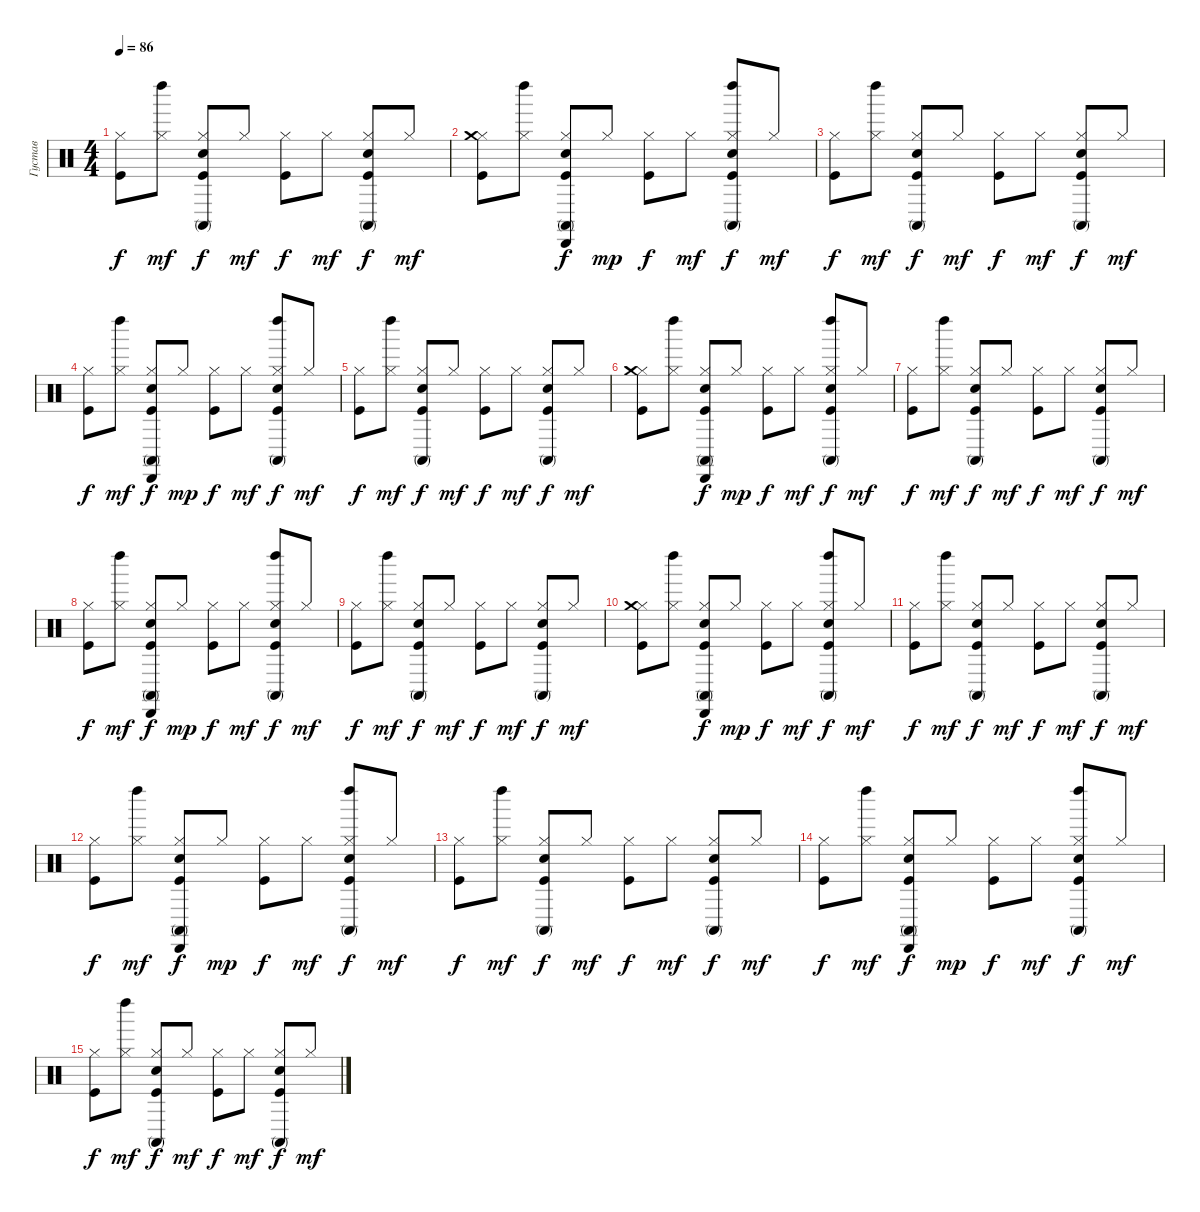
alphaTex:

\track ("Густав" "Густав") {instrument percussion}
\staff {score}
\articulation defaults
\ts (4 4)
\tempo 86
\clef neutral
\ks c
("Hi-Hat (closed)" "Kick (hit)").8{dy f} ("Hi-Hat (closed)" "Left Maraca (hit)").8{dy mf} ("Snare (hit) 2" "Conga high (mute)" "Hi-Hat (closed)" "Kick (hit)").8{dy f} "Hi-Hat (closed)".8{dy mf} ("Hi-Hat (closed)" "Kick (hit)").8{dy f} "Hi-Hat (closed)".8{dy mf} ("Snare (hit) 2" "Conga high (mute)" "Hi-Hat (closed)" "Kick (hit)").8{dy f} "Hi-Hat (closed)".8{dy mf} |
("Hi-Hat (closed)" "Crash medium (hit)" "Kick (hit)").8 ("Hi-Hat (closed)" "Left Maraca (hit)").8 ("Cabasa (hit)" "Snare (hit) 2" "Conga high (mute)" "Hi-Hat (closed)" "Kick (hit)").8{dy f} "Hi-Hat (closed)".8{dy mp} ("Hi-Hat (closed)" "Kick (hit)").8{dy f} "Hi-Hat (closed)".8{dy mf} ("Left Maraca (hit)" "Snare (hit) 2" "Conga high (mute)" "Hi-Hat (closed)" "Kick (hit)").8{dy f} "Hi-Hat (closed)".8{dy mf} |
("Hi-Hat (closed)" "Kick (hit)").8{dy f} ("Hi-Hat (closed)" "Left Maraca (hit)").8{dy mf} ("Snare (hit) 2" "Conga high (mute)" "Hi-Hat (closed)" "Kick (hit)").8{dy f} "Hi-Hat (closed)".8{dy mf} ("Hi-Hat (closed)" "Kick (hit)").8{dy f} "Hi-Hat (closed)".8{dy mf} ("Snare (hit) 2" "Conga high (mute)" "Hi-Hat (closed)" "Kick (hit)").8{dy f} "Hi-Hat (closed)".8{dy mf} |
("Hi-Hat (closed)" "Kick (hit)").8{dy f} ("Hi-Hat (closed)" "Left Maraca (hit)").8{dy mf} ("Cabasa (hit)" "Snare (hit) 2" "Conga high (mute)" "Hi-Hat (closed)" "Kick (hit)").8{dy f} "Hi-Hat (closed)".8{dy mp} ("Hi-Hat (closed)" "Kick (hit)").8{dy f} "Hi-Hat (closed)".8{dy mf} ("Left Maraca (hit)" "Snare (hit) 2" "Conga high (mute)" "Hi-Hat (closed)" "Kick (hit)").8{dy f} "Hi-Hat (closed)".8{dy mf} |
("Hi-Hat (closed)" "Kick (hit)").8{dy f} ("Hi-Hat (closed)" "Left Maraca (hit)").8{dy mf} ("Snare (hit) 2" "Conga high (mute)" "Hi-Hat (closed)" "Kick (hit)").8{dy f} "Hi-Hat (closed)".8{dy mf} ("Hi-Hat (closed)" "Kick (hit)").8{dy f} "Hi-Hat (closed)".8{dy mf} ("Snare (hit) 2" "Conga high (mute)" "Hi-Hat (closed)" "Kick (hit)").8{dy f} "Hi-Hat (closed)".8{dy mf} |
("Hi-Hat (closed)" "Crash medium (hit)" "Kick (hit)").8 ("Hi-Hat (closed)" "Left Maraca (hit)").8 ("Cabasa (hit)" "Snare (hit) 2" "Conga high (mute)" "Hi-Hat (closed)" "Kick (hit)").8{dy f} "Hi-Hat (closed)".8{dy mp} ("Hi-Hat (closed)" "Kick (hit)").8{dy f} "Hi-Hat (closed)".8{dy mf} ("Left Maraca (hit)" "Snare (hit) 2" "Conga high (mute)" "Hi-Hat (closed)" "Kick (hit)").8{dy f} "Hi-Hat (closed)".8{dy mf} |
("Hi-Hat (closed)" "Kick (hit)").8{dy f} ("Hi-Hat (closed)" "Left Maraca (hit)").8{dy mf} ("Snare (hit) 2" "Conga high (mute)" "Hi-Hat (closed)" "Kick (hit)").8{dy f} "Hi-Hat (closed)".8{dy mf} ("Hi-Hat (closed)" "Kick (hit)").8{dy f} "Hi-Hat (closed)".8{dy mf} ("Snare (hit) 2" "Conga high (mute)" "Hi-Hat (closed)" "Kick (hit)").8{dy f} "Hi-Hat (closed)".8{dy mf} |
("Hi-Hat (closed)" "Kick (hit)").8{dy f} ("Hi-Hat (closed)" "Left Maraca (hit)").8{dy mf} ("Cabasa (hit)" "Snare (hit) 2" "Conga high (mute)" "Hi-Hat (closed)" "Kick (hit)").8{dy f} "Hi-Hat (closed)".8{dy mp} ("Hi-Hat (closed)" "Kick (hit)").8{dy f} "Hi-Hat (closed)".8{dy mf} ("Left Maraca (hit)" "Snare (hit) 2" "Conga high (mute)" "Hi-Hat (closed)" "Kick (hit)").8{dy f} "Hi-Hat (closed)".8{dy mf} |
("Hi-Hat (closed)" "Kick (hit)").8{dy f} ("Hi-Hat (closed)" "Left Maraca (hit)").8{dy mf} ("Snare (hit) 2" "Conga high (mute)" "Hi-Hat (closed)" "Kick (hit)").8{dy f} "Hi-Hat (closed)".8{dy mf} ("Hi-Hat (closed)" "Kick (hit)").8{dy f} "Hi-Hat (closed)".8{dy mf} ("Snare (hit) 2" "Conga high (mute)" "Hi-Hat (closed)" "Kick (hit)").8{dy f} "Hi-Hat (closed)".8{dy mf} |
("Hi-Hat (closed)" "Crash medium (hit)" "Kick (hit)").8 ("Hi-Hat (closed)" "Left Maraca (hit)").8 ("Cabasa (hit)" "Snare (hit) 2" "Conga high (mute)" "Hi-Hat (closed)" "Kick (hit)").8{dy f} "Hi-Hat (closed)".8{dy mp} ("Hi-Hat (closed)" "Kick (hit)").8{dy f} "Hi-Hat (closed)".8{dy mf} ("Left Maraca (hit)" "Snare (hit) 2" "Conga high (mute)" "Hi-Hat (closed)" "Kick (hit)").8{dy f} "Hi-Hat (closed)".8{dy mf} |
("Hi-Hat (closed)" "Kick (hit)").8{dy f} ("Hi-Hat (closed)" "Left Maraca (hit)").8{dy mf} ("Snare (hit) 2" "Conga high (mute)" "Hi-Hat (closed)" "Kick (hit)").8{dy f} "Hi-Hat (closed)".8{dy mf} ("Hi-Hat (closed)" "Kick (hit)").8{dy f} "Hi-Hat (closed)".8{dy mf} ("Snare (hit) 2" "Conga high (mute)" "Hi-Hat (closed)" "Kick (hit)").8{dy f} "Hi-Hat (closed)".8{dy mf} |
("Hi-Hat (closed)" "Kick (hit)").8{dy f} ("Hi-Hat (closed)" "Left Maraca (hit)").8{dy mf} ("Cabasa (hit)" "Snare (hit) 2" "Conga high (mute)" "Hi-Hat (closed)" "Kick (hit)").8{dy f} "Hi-Hat (closed)".8{dy mp} ("Hi-Hat (closed)" "Kick (hit)").8{dy f} "Hi-Hat (closed)".8{dy mf} ("Left Maraca (hit)" "Snare (hit) 2" "Conga high (mute)" "Hi-Hat (closed)" "Kick (hit)").8{dy f} "Hi-Hat (closed)".8{dy mf} |
("Hi-Hat (closed)" "Kick (hit)").8{dy f} ("Hi-Hat (closed)" "Left Maraca (hit)").8{dy mf} ("Snare (hit) 2" "Conga high (mute)" "Hi-Hat (closed)" "Kick (hit)").8{dy f} "Hi-Hat (closed)".8{dy mf} ("Hi-Hat (closed)" "Kick (hit)").8{dy f} "Hi-Hat (closed)".8{dy mf} ("Snare (hit) 2" "Conga high (mute)" "Hi-Hat (closed)" "Kick (hit)").8{dy f} "Hi-Hat (closed)".8{dy mf} |
("Hi-Hat (closed)" "Kick (hit)").8{dy f} ("Hi-Hat (closed)" "Left Maraca (hit)").8{dy mf} ("Cabasa (hit)" "Snare (hit) 2" "Conga high (mute)" "Hi-Hat (closed)" "Kick (hit)").8{dy f} "Hi-Hat (closed)".8{dy mp} ("Hi-Hat (closed)" "Kick (hit)").8{dy f} "Hi-Hat (closed)".8{dy mf} ("Left Maraca (hit)" "Snare (hit) 2" "Conga high (mute)" "Hi-Hat (closed)" "Kick (hit)").8{dy f} "Hi-Hat (closed)".8{dy mf} |
("Hi-Hat (closed)" "Kick (hit)").8{dy f} ("Hi-Hat (closed)" "Left Maraca (hit)").8{dy mf} ("Snare (hit) 2" "Conga high (mute)" "Hi-Hat (closed)" "Kick (hit)").8{dy f} "Hi-Hat (closed)".8{dy mf} ("Hi-Hat (closed)" "Kick (hit)").8{dy f} "Hi-Hat (closed)".8{dy mf} ("Snare (hit) 2" "Conga high (mute)" "Hi-Hat (closed)" "Kick (hit)").8{dy f} "Hi-Hat (closed)".8{dy mf}
